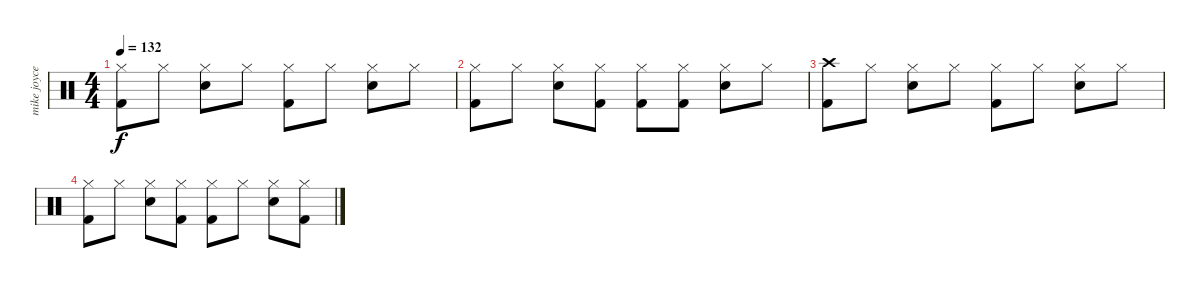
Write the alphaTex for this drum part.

\track ("mike joyce" "mike joyce") {instrument percussion}
\staff {score}
\articulation defaults
\ts (4 4)
\tempo 132
\clef neutral
\ks c
("Hi-Hat (closed)" "Kick (hit) 2").8{dy f} "Hi-Hat (closed)".8 ("Hi-Hat (closed)" "Snare (hit) 2").8 "Hi-Hat (closed)".8 ("Hi-Hat (closed)" "Kick (hit) 2").8 "Hi-Hat (closed)".8 ("Hi-Hat (closed)" "Snare (hit) 2").8 "Hi-Hat (closed)".8 |
("Hi-Hat (closed)" "Kick (hit) 2").8 "Hi-Hat (closed)".8 ("Hi-Hat (closed)" "Snare (hit) 2").8 ("Hi-Hat (closed)" "Kick (hit) 2").8 ("Hi-Hat (closed)" "Kick (hit) 2").8 ("Hi-Hat (closed)" "Kick (hit) 2").8 ("Hi-Hat (closed)" "Snare (hit) 2").8 "Hi-Hat (closed)".8 |
("Crash high (hit)" "Kick (hit) 2").8 "Hi-Hat (closed)".8 ("Hi-Hat (closed)" "Snare (hit) 2").8 "Hi-Hat (closed)".8 ("Hi-Hat (closed)" "Kick (hit) 2").8 "Hi-Hat (closed)".8 ("Hi-Hat (closed)" "Snare (hit) 2").8 "Hi-Hat (closed)".8 |
("Hi-Hat (closed)" "Kick (hit) 2").8 "Hi-Hat (closed)".8 ("Hi-Hat (closed)" "Snare (hit) 2").8 ("Hi-Hat (closed)" "Kick (hit) 2").8 ("Hi-Hat (closed)" "Kick (hit) 2").8 "Hi-Hat (closed)".8 ("Hi-Hat (closed)" "Snare (hit) 2").8 ("Hi-Hat (closed)" "Kick (hit) 2").8
